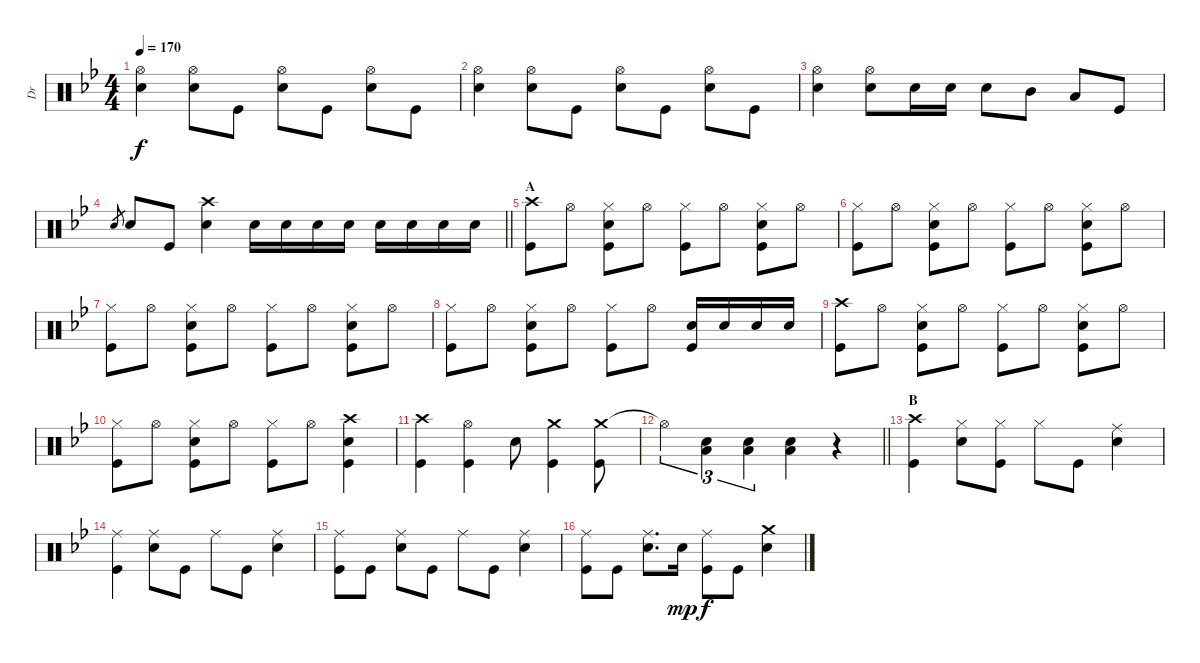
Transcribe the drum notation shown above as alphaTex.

\track ("Dr" "Dr") {instrument percussion}
\staff {score}
\articulation defaults
\ts (4 4)
\tempo 170
\clef neutral
\ks bb
("Hi-Hat (open)" "Electric Snare (hit)").4{dy f} ("Hi-Hat (open)" "Electric Snare (hit)").8 "Kick (hit)".8 ("Hi-Hat (open)" "Electric Snare (hit)").8 "Kick (hit)".8 ("Hi-Hat (open)" "Electric Snare (hit)").8 "Kick (hit)".8 |
("Hi-Hat (open)" "Electric Snare (hit)").4 ("Hi-Hat (open)" "Electric Snare (hit)").8 "Kick (hit)".8 ("Hi-Hat (open)" "Electric Snare (hit)").8 "Kick (hit)".8 ("Hi-Hat (open)" "Electric Snare (hit)").8 "Kick (hit)".8 |
("Hi-Hat (open)" "Electric Snare (hit)").4 ("Hi-Hat (open)" "Electric Snare (hit)").8 "Electric Snare (hit)".16 "Electric Snare (hit)".16 "Electric Snare (hit)".8 "Mid Tom (hit)".8 "Low Floor Tom (hit)".8 "Kick (hit)".8 |
\barLineRight lightlight "Electric Snare (hit)".8{gr} "Electric Snare (hit)".8 "Kick (hit)".8
("Crash high (hit)" "Electric Snare (hit)").4 "Electric Snare (hit)".16 "Electric Snare (hit)".16 "Electric Snare (hit)".16 "Electric Snare (hit)".16 "Electric Snare (hit)".16 "Electric Snare (hit)".16 "Electric Snare (hit)".16 "Electric Snare (hit)".16 |
\section ("" "A")
("Crash high (hit)" "Kick (hit)").8 "Hi-Hat (open)".8 ("Hi-Hat (closed)" "Electric Snare (hit)" "Kick (hit)").8 "Hi-Hat (open)".8 ("Hi-Hat (closed)" "Kick (hit)").8 "Hi-Hat (open)".8 ("Hi-Hat (closed)" "Electric Snare (hit)" "Kick (hit)").8 "Hi-Hat (open)".8 |
("Hi-Hat (closed)" "Kick (hit)").8 "Hi-Hat (open)".8 ("Hi-Hat (closed)" "Electric Snare (hit)" "Kick (hit)").8 "Hi-Hat (open)".8 ("Hi-Hat (closed)" "Kick (hit)").8 "Hi-Hat (open)".8 ("Hi-Hat (closed)" "Electric Snare (hit)" "Kick (hit)").8 "Hi-Hat (open)".8 |
("Hi-Hat (closed)" "Kick (hit)").8 "Hi-Hat (open)".8 ("Hi-Hat (closed)" "Electric Snare (hit)" "Kick (hit)").8 "Hi-Hat (open)".8 ("Hi-Hat (closed)" "Kick (hit)").8 "Hi-Hat (open)".8 ("Hi-Hat (closed)" "Electric Snare (hit)" "Kick (hit)").8 "Hi-Hat (open)".8 |
("Hi-Hat (closed)" "Kick (hit)").8 "Hi-Hat (open)".8 ("Hi-Hat (closed)" "Electric Snare (hit)" "Kick (hit)").8 "Hi-Hat (open)".8 ("Hi-Hat (closed)" "Kick (hit)").8 "Hi-Hat (open)".8 ("Electric Snare (hit)" "Kick (hit)").16 "Electric Snare (hit)".16 "Electric Snare (hit)".16 "Electric Snare (hit)".16 |
("Crash high (hit)" "Kick (hit)").8 "Hi-Hat (open)".8 ("Hi-Hat (closed)" "Electric Snare (hit)" "Kick (hit)").8 "Hi-Hat (open)".8 ("Hi-Hat (closed)" "Kick (hit)").8 "Hi-Hat (open)".8 ("Hi-Hat (closed)" "Electric Snare (hit)" "Kick (hit)").8 "Hi-Hat (open)".8 |
("Hi-Hat (closed)" "Kick (hit)").8 "Hi-Hat (open)".8 ("Hi-Hat (closed)" "Electric Snare (hit)" "Kick (hit)").8 "Hi-Hat (open)".8 ("Hi-Hat (closed)" "Kick (hit)").8 "Hi-Hat (open)".8 ("Crash high (hit)" "Electric Snare (hit)" "Kick (hit)").4 |
("Crash high (hit)" "Kick (hit)").4 ("Hi-Hat (open)" "Kick (hit)").4 "Electric Snare (hit)".8 ("Crash medium (hit)" "Kick (hit)").4 ("Crash medium (hit)" "Kick (hit)").8 |
\barLineRight lightlight "Hi-Hat (open)"{t}.4{tu (3 2)}
("Electric Snare (hit)" "Low Floor Tom (hit)").4{tu (3 2)} ("Electric Snare (hit)" "Low Floor Tom (hit)").4{tu (3 2)} ("Electric Snare (hit)" "Low Floor Tom (hit)").4 r.4 |
\section ("" "B")
("Crash high (hit)" "Kick (hit)").4 ("Hi-Hat (closed)" "Electric Snare (hit)").8 ("Hi-Hat (closed)" "Kick (hit)").8 "Hi-Hat (closed)".8 "Kick (hit)".8 ("Ride (middle)" "Electric Snare (hit)").4 |
("Ride (middle)" "Kick (hit)").4 ("Ride (middle)" "Electric Snare (hit)").8 "Kick (hit)".8 "Ride (middle)".8 "Kick (hit)".8 ("Ride (middle)" "Electric Snare (hit)").4 |
("Ride (middle)" "Kick (hit)").8 "Kick (hit)".8 ("Ride (middle)" "Electric Snare (hit)").8 "Kick (hit)".8 "Ride (middle)".8 "Kick (hit)".8 ("Ride (middle)" "Electric Snare (hit)").4 |
("Ride (middle)" "Kick (hit)").8 "Kick (hit)".8 ("Ride (middle)" "Electric Snare (hit)").8{d} "Electric Snare (hit)".16{dy mp} ("Ride (middle)" "Kick (hit)").8{dy f} "Kick (hit)".8 ("Crash medium (hit)" "Electric Snare (hit)").4
